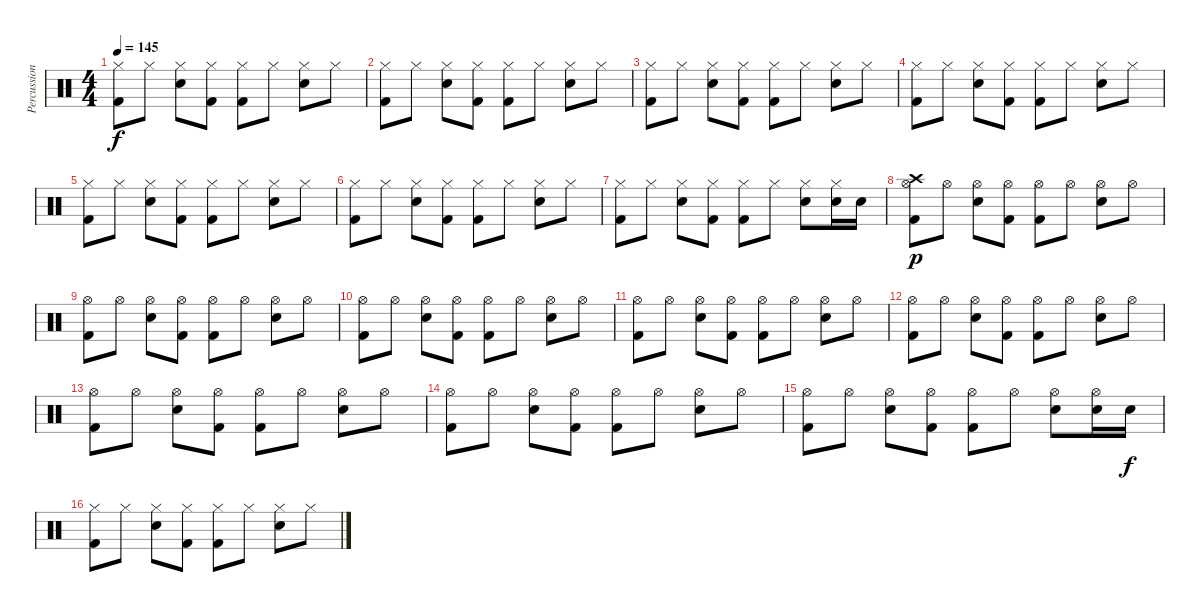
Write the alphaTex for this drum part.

\track ("Percussion" "Percussion") {instrument percussion}
\staff {score}
\articulation defaults
\ts (4 4)
\tempo 145
\clef neutral
\ks c
("Hi-Hat (closed)" "Kick (hit) 2").8{dy f} "Hi-Hat (closed)".8 ("Hi-Hat (closed)" "Electric Snare (hit)").8 ("Hi-Hat (closed)" "Kick (hit) 2").8 ("Hi-Hat (closed)" "Kick (hit) 2").8 "Hi-Hat (closed)".8 ("Hi-Hat (closed)" "Electric Snare (hit)").8 "Hi-Hat (closed)".8 |
("Hi-Hat (closed)" "Kick (hit) 2").8 "Hi-Hat (closed)".8 ("Hi-Hat (closed)" "Electric Snare (hit)").8 ("Hi-Hat (closed)" "Kick (hit) 2").8 ("Hi-Hat (closed)" "Kick (hit) 2").8 "Hi-Hat (closed)".8 ("Hi-Hat (closed)" "Electric Snare (hit)").8 "Hi-Hat (closed)".8 |
("Hi-Hat (closed)" "Kick (hit) 2").8 "Hi-Hat (closed)".8 ("Hi-Hat (closed)" "Electric Snare (hit)").8 ("Hi-Hat (closed)" "Kick (hit) 2").8 ("Hi-Hat (closed)" "Kick (hit) 2").8 "Hi-Hat (closed)".8 ("Hi-Hat (closed)" "Electric Snare (hit)").8 "Hi-Hat (closed)".8 |
("Hi-Hat (closed)" "Kick (hit) 2").8 "Hi-Hat (closed)".8 ("Hi-Hat (closed)" "Electric Snare (hit)").8 ("Hi-Hat (closed)" "Kick (hit) 2").8 ("Hi-Hat (closed)" "Kick (hit) 2").8 "Hi-Hat (closed)".8 ("Hi-Hat (closed)" "Electric Snare (hit)").8 "Hi-Hat (closed)".8 |
("Hi-Hat (closed)" "Kick (hit) 2").8 "Hi-Hat (closed)".8 ("Hi-Hat (closed)" "Electric Snare (hit)").8 ("Hi-Hat (closed)" "Kick (hit) 2").8 ("Hi-Hat (closed)" "Kick (hit) 2").8 "Hi-Hat (closed)".8 ("Hi-Hat (closed)" "Electric Snare (hit)").8 "Hi-Hat (closed)".8 |
("Hi-Hat (closed)" "Kick (hit) 2").8 "Hi-Hat (closed)".8 ("Hi-Hat (closed)" "Electric Snare (hit)").8 ("Hi-Hat (closed)" "Kick (hit) 2").8 ("Hi-Hat (closed)" "Kick (hit) 2").8 "Hi-Hat (closed)".8 ("Hi-Hat (closed)" "Electric Snare (hit)").8 "Hi-Hat (closed)".8 |
("Hi-Hat (closed)" "Kick (hit) 2").8 "Hi-Hat (closed)".8 ("Hi-Hat (closed)" "Electric Snare (hit)").8 ("Hi-Hat (closed)" "Kick (hit) 2").8 ("Hi-Hat (closed)" "Kick (hit) 2").8 "Hi-Hat (closed)".8 ("Hi-Hat (closed)" "Electric Snare (hit)").8 ("Hi-Hat (closed)" "Electric Snare (hit)").16 "Electric Snare (hit)".16 |
("Crash high (hit)" "Hi-Hat (open)" "Kick (hit) 2").8{dy p} "Hi-Hat (open)".8 ("Hi-Hat (open)" "Electric Snare (hit)").8 ("Hi-Hat (open)" "Kick (hit) 2").8 ("Hi-Hat (open)" "Kick (hit) 2").8 "Hi-Hat (open)".8 ("Hi-Hat (open)" "Electric Snare (hit)").8 "Hi-Hat (open)".8 |
("Hi-Hat (open)" "Kick (hit) 2").8 "Hi-Hat (open)".8 ("Hi-Hat (open)" "Electric Snare (hit)").8 ("Hi-Hat (open)" "Kick (hit) 2").8 ("Hi-Hat (open)" "Kick (hit) 2").8 "Hi-Hat (open)".8 ("Hi-Hat (open)" "Electric Snare (hit)").8 "Hi-Hat (open)".8 |
("Hi-Hat (open)" "Kick (hit) 2").8 "Hi-Hat (open)".8 ("Hi-Hat (open)" "Electric Snare (hit)").8 ("Hi-Hat (open)" "Kick (hit) 2").8 ("Hi-Hat (open)" "Kick (hit) 2").8 "Hi-Hat (open)".8 ("Hi-Hat (open)" "Electric Snare (hit)").8 "Hi-Hat (open)".8 |
("Hi-Hat (open)" "Kick (hit) 2").8 "Hi-Hat (open)".8 ("Hi-Hat (open)" "Electric Snare (hit)").8 ("Hi-Hat (open)" "Kick (hit) 2").8 ("Hi-Hat (open)" "Kick (hit) 2").8 "Hi-Hat (open)".8 ("Hi-Hat (open)" "Electric Snare (hit)").8 "Hi-Hat (open)".8 |
("Hi-Hat (open)" "Kick (hit) 2").8 "Hi-Hat (open)".8 ("Hi-Hat (open)" "Electric Snare (hit)").8 ("Hi-Hat (open)" "Kick (hit) 2").8 ("Hi-Hat (open)" "Kick (hit) 2").8 "Hi-Hat (open)".8 ("Hi-Hat (open)" "Electric Snare (hit)").8 "Hi-Hat (open)".8 |
("Hi-Hat (open)" "Kick (hit) 2").8 "Hi-Hat (open)".8 ("Hi-Hat (open)" "Electric Snare (hit)").8 ("Hi-Hat (open)" "Kick (hit) 2").8 ("Hi-Hat (open)" "Kick (hit) 2").8 "Hi-Hat (open)".8 ("Hi-Hat (open)" "Electric Snare (hit)").8 "Hi-Hat (open)".8 |
("Hi-Hat (open)" "Kick (hit) 2").8 "Hi-Hat (open)".8 ("Hi-Hat (open)" "Electric Snare (hit)").8 ("Hi-Hat (open)" "Kick (hit) 2").8 ("Hi-Hat (open)" "Kick (hit) 2").8 "Hi-Hat (open)".8 ("Hi-Hat (open)" "Electric Snare (hit)").8 "Hi-Hat (open)".8 |
("Hi-Hat (open)" "Kick (hit) 2").8 "Hi-Hat (open)".8 ("Hi-Hat (open)" "Electric Snare (hit)").8 ("Hi-Hat (open)" "Kick (hit) 2").8 ("Hi-Hat (open)" "Kick (hit) 2").8 "Hi-Hat (open)".8 ("Hi-Hat (open)" "Electric Snare (hit)").8 ("Hi-Hat (open)" "Electric Snare (hit)").16 "Electric Snare (hit)".16{dy f} |
("Hi-Hat (closed)" "Kick (hit) 2").8 "Hi-Hat (closed)".8 ("Hi-Hat (closed)" "Electric Snare (hit)").8 ("Hi-Hat (closed)" "Kick (hit) 2").8 ("Hi-Hat (closed)" "Kick (hit) 2").8 "Hi-Hat (closed)".8 ("Hi-Hat (closed)" "Electric Snare (hit)").8 "Hi-Hat (closed)".8
